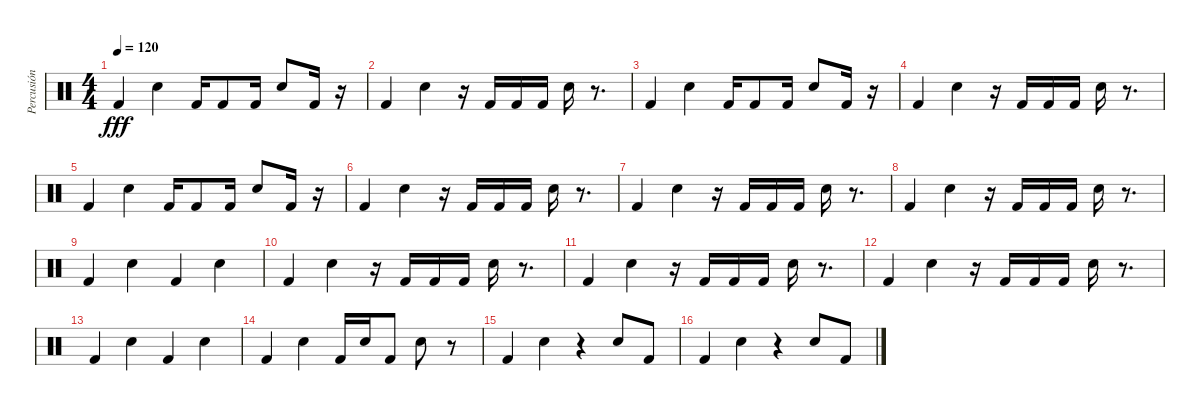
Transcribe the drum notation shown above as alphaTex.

\track ("Percusión" "Percusión") {instrument percussion}
\staff {score}
\articulation defaults
\ts (4 4)
\tempo 120
\clef neutral
\ks c "Kick (hit) 2".4{dy fff} "Snare (hit) 2".4 "Kick (hit) 2".16 "Kick (hit) 2".8 "Kick (hit) 2".16 "Snare (hit) 2".8 "Kick (hit) 2".16
r.16 |
"Kick (hit) 2".4 "Snare (hit) 2".4 r.16 "Kick (hit) 2".16 "Kick (hit) 2".16 "Kick (hit) 2".16 "Snare (hit) 2".16 r.8{d} |
"Kick (hit) 2".4 "Snare (hit) 2".4 "Kick (hit) 2".16 "Kick (hit) 2".8 "Kick (hit) 2".16 "Snare (hit) 2".8 "Kick (hit) 2".16 r.16 |
"Kick (hit) 2".4 "Snare (hit) 2".4 r.16 "Kick (hit) 2".16 "Kick (hit) 2".16 "Kick (hit) 2".16 "Snare (hit) 2".16 r.8{d} |
"Kick (hit) 2".4 "Snare (hit) 2".4 "Kick (hit) 2".16 "Kick (hit) 2".8 "Kick (hit) 2".16 "Snare (hit) 2".8 "Kick (hit) 2".16 r.16 |
"Kick (hit) 2".4 "Snare (hit) 2".4 r.16 "Kick (hit) 2".16 "Kick (hit) 2".16 "Kick (hit) 2".16 "Snare (hit) 2".16 r.8{d} |
"Kick (hit) 2".4 "Snare (hit) 2".4 r.16 "Kick (hit) 2".16 "Kick (hit) 2".16 "Kick (hit) 2".16 "Snare (hit) 2".16 r.8{d} |
"Kick (hit) 2".4 "Snare (hit) 2".4 r.16 "Kick (hit) 2".16 "Kick (hit) 2".16 "Kick (hit) 2".16 "Snare (hit) 2".16 r.8{d} |
"Kick (hit) 2".4 "Snare (hit) 2".4 "Kick (hit) 2".4 "Snare (hit) 2".4 |
"Kick (hit) 2".4 "Snare (hit) 2".4 r.16 "Kick (hit) 2".16 "Kick (hit) 2".16 "Kick (hit) 2".16 "Snare (hit) 2".16 r.8{d} |
"Kick (hit) 2".4 "Snare (hit) 2".4 r.16 "Kick (hit) 2".16 "Kick (hit) 2".16 "Kick (hit) 2".16 "Snare (hit) 2".16 r.8{d} |
"Kick (hit) 2".4 "Snare (hit) 2".4 r.16 "Kick (hit) 2".16 "Kick (hit) 2".16 "Kick (hit) 2".16 "Snare (hit) 2".16 r.8{d} |
"Kick (hit) 2".4 "Snare (hit) 2".4 "Kick (hit) 2".4 "Snare (hit) 2".4 |
"Kick (hit) 2".4 "Snare (hit) 2".4 "Kick (hit) 2".16 "Snare (hit) 2".16 "Kick (hit) 2".8 "Snare (hit) 2".8 r.8 |
"Kick (hit) 2".4 "Snare (hit) 2".4 r.4 "Snare (hit) 2".8 "Kick (hit) 2".8 |
"Kick (hit) 2".4 "Snare (hit) 2".4 r.4 "Snare (hit) 2".8 "Kick (hit) 2".8
